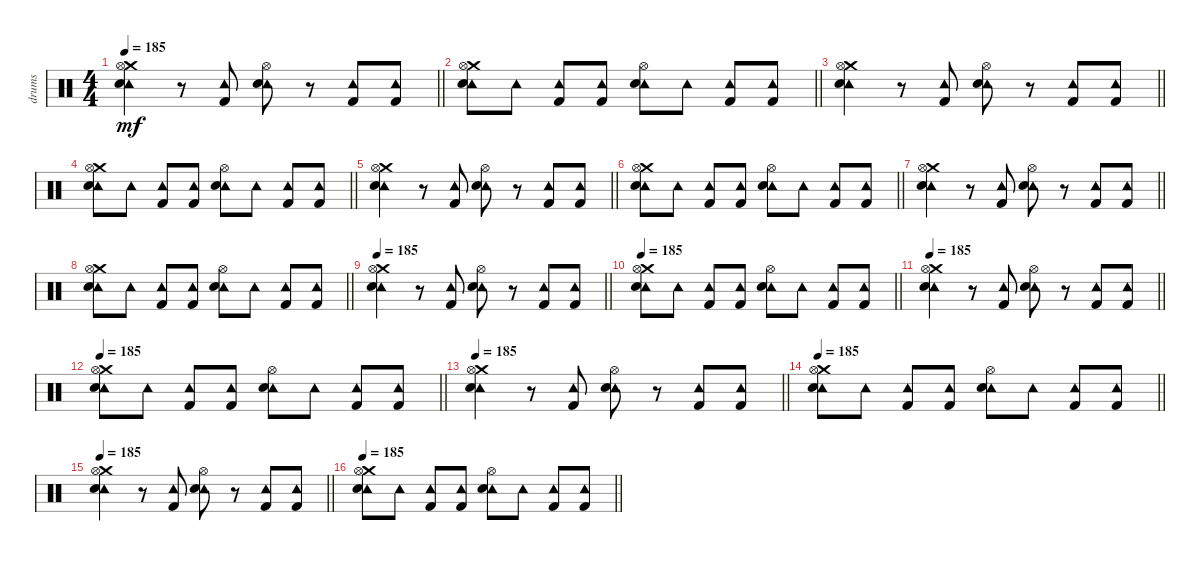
\track ("drums" "drums") {instrument percussion}
\staff {score}
\articulation defaults
\ts (4 4)
\tempo 185
\clef neutral
\barLineRight lightlight
\ks c
("Tambourine (hit)" "Crash medium (hit)" "Hi-Hat (open)" "Electric Snare (hit)").4{dy mf} r.8 ("Tambourine (hit)" "Kick (hit) 2").8 ("Tambourine (hit)" "Hi-Hat (open)" "Electric Snare (hit)").8 r.8 ("Tambourine (hit)" "Kick (hit) 2").8 ("Tambourine (hit)" "Kick (hit) 2").8 |
\barLineRight lightlight
("Tambourine (hit)" "Crash medium (hit)" "Hi-Hat (open)" "Electric Snare (hit)").8 "Tambourine (hit)".8 ("Tambourine (hit)" "Kick (hit) 2").8 ("Tambourine (hit)" "Kick (hit) 2").8 ("Tambourine (hit)" "Hi-Hat (open)" "Electric Snare (hit)").8 "Tambourine (hit)".8 ("Tambourine (hit)" "Kick (hit) 2").8 ("Tambourine (hit)" "Kick (hit) 2").8 |
\barLineRight lightlight
("Tambourine (hit)" "Crash medium (hit)" "Hi-Hat (open)" "Electric Snare (hit)").4 r.8 ("Tambourine (hit)" "Kick (hit) 2").8 ("Tambourine (hit)" "Hi-Hat (open)" "Electric Snare (hit)").8 r.8 ("Tambourine (hit)" "Kick (hit) 2").8 ("Tambourine (hit)" "Kick (hit) 2").8 |
\barLineRight lightlight
("Tambourine (hit)" "Crash medium (hit)" "Hi-Hat (open)" "Electric Snare (hit)").8 "Tambourine (hit)".8 ("Tambourine (hit)" "Kick (hit) 2").8 ("Tambourine (hit)" "Kick (hit) 2").8 ("Tambourine (hit)" "Hi-Hat (open)" "Electric Snare (hit)").8 "Tambourine (hit)".8 ("Tambourine (hit)" "Kick (hit) 2").8 ("Tambourine (hit)" "Kick (hit) 2").8 |
\barLineRight lightlight
("Tambourine (hit)" "Crash medium (hit)" "Hi-Hat (open)" "Electric Snare (hit)").4 r.8 ("Tambourine (hit)" "Kick (hit) 2").8 ("Tambourine (hit)" "Hi-Hat (open)" "Electric Snare (hit)").8 r.8 ("Tambourine (hit)" "Kick (hit) 2").8 ("Tambourine (hit)" "Kick (hit) 2").8 |
\barLineRight lightlight
("Tambourine (hit)" "Crash medium (hit)" "Hi-Hat (open)" "Electric Snare (hit)").8 "Tambourine (hit)".8 ("Tambourine (hit)" "Kick (hit) 2").8 ("Tambourine (hit)" "Kick (hit) 2").8 ("Tambourine (hit)" "Hi-Hat (open)" "Electric Snare (hit)").8 "Tambourine (hit)".8 ("Tambourine (hit)" "Kick (hit) 2").8 ("Tambourine (hit)" "Kick (hit) 2").8 |
\barLineRight lightlight
("Tambourine (hit)" "Crash medium (hit)" "Hi-Hat (open)" "Electric Snare (hit)").4 r.8 ("Tambourine (hit)" "Kick (hit) 2").8 ("Tambourine (hit)" "Hi-Hat (open)" "Electric Snare (hit)").8 r.8 ("Tambourine (hit)" "Kick (hit) 2").8 ("Tambourine (hit)" "Kick (hit) 2").8 |
\barLineRight lightlight
("Tambourine (hit)" "Crash medium (hit)" "Hi-Hat (open)" "Electric Snare (hit)").8 "Tambourine (hit)".8 ("Tambourine (hit)" "Kick (hit) 2").8 ("Tambourine (hit)" "Kick (hit) 2").8 ("Tambourine (hit)" "Hi-Hat (open)" "Electric Snare (hit)").8 "Tambourine (hit)".8 ("Tambourine (hit)" "Kick (hit) 2").8 ("Tambourine (hit)" "Kick (hit) 2").8 |
\tempo 185
\barLineRight lightlight
("Tambourine (hit)" "Crash medium (hit)" "Hi-Hat (open)" "Electric Snare (hit)").4 r.8 ("Tambourine (hit)" "Kick (hit) 2").8 ("Tambourine (hit)" "Hi-Hat (open)" "Electric Snare (hit)").8 r.8 ("Tambourine (hit)" "Kick (hit) 2").8 ("Tambourine (hit)" "Kick (hit) 2").8 |
\tempo 185
\barLineRight lightlight
("Tambourine (hit)" "Crash medium (hit)" "Hi-Hat (open)" "Electric Snare (hit)").8 "Tambourine (hit)".8 ("Tambourine (hit)" "Kick (hit) 2").8 ("Tambourine (hit)" "Kick (hit) 2").8 ("Tambourine (hit)" "Hi-Hat (open)" "Electric Snare (hit)").8 "Tambourine (hit)".8 ("Tambourine (hit)" "Kick (hit) 2").8 ("Tambourine (hit)" "Kick (hit) 2").8 |
\tempo 185
\barLineRight lightlight
("Tambourine (hit)" "Crash medium (hit)" "Hi-Hat (open)" "Electric Snare (hit)").4 r.8 ("Tambourine (hit)" "Kick (hit) 2").8 ("Tambourine (hit)" "Hi-Hat (open)" "Electric Snare (hit)").8 r.8 ("Tambourine (hit)" "Kick (hit) 2").8 ("Tambourine (hit)" "Kick (hit) 2").8 |
\tempo 185
\barLineRight lightlight
("Tambourine (hit)" "Crash medium (hit)" "Hi-Hat (open)" "Electric Snare (hit)").8 "Tambourine (hit)".8 ("Tambourine (hit)" "Kick (hit) 2").8 ("Tambourine (hit)" "Kick (hit) 2").8 ("Tambourine (hit)" "Hi-Hat (open)" "Electric Snare (hit)").8 "Tambourine (hit)".8 ("Tambourine (hit)" "Kick (hit) 2").8 ("Tambourine (hit)" "Kick (hit) 2").8 |
\tempo 185
\barLineRight lightlight
("Tambourine (hit)" "Crash medium (hit)" "Hi-Hat (open)" "Electric Snare (hit)").4 r.8 ("Tambourine (hit)" "Kick (hit) 2").8 ("Tambourine (hit)" "Hi-Hat (open)" "Electric Snare (hit)").8 r.8 ("Tambourine (hit)" "Kick (hit) 2").8 ("Tambourine (hit)" "Kick (hit) 2").8 |
\tempo 185
\barLineRight lightlight
("Tambourine (hit)" "Crash medium (hit)" "Hi-Hat (open)" "Electric Snare (hit)").8 "Tambourine (hit)".8 ("Tambourine (hit)" "Kick (hit) 2").8 ("Tambourine (hit)" "Kick (hit) 2").8 ("Tambourine (hit)" "Hi-Hat (open)" "Electric Snare (hit)").8 "Tambourine (hit)".8 ("Tambourine (hit)" "Kick (hit) 2").8 ("Tambourine (hit)" "Kick (hit) 2").8 |
\tempo 185
\barLineRight lightlight
("Tambourine (hit)" "Crash medium (hit)" "Hi-Hat (open)" "Electric Snare (hit)").4 r.8 ("Tambourine (hit)" "Kick (hit) 2").8 ("Tambourine (hit)" "Hi-Hat (open)" "Electric Snare (hit)").8 r.8 ("Tambourine (hit)" "Kick (hit) 2").8 ("Tambourine (hit)" "Kick (hit) 2").8 |
\tempo 185
\barLineRight lightlight
("Tambourine (hit)" "Crash medium (hit)" "Hi-Hat (open)" "Electric Snare (hit)").8 "Tambourine (hit)".8 ("Tambourine (hit)" "Kick (hit) 2").8 ("Tambourine (hit)" "Kick (hit) 2").8 ("Tambourine (hit)" "Hi-Hat (open)" "Electric Snare (hit)").8 "Tambourine (hit)".8 ("Tambourine (hit)" "Kick (hit) 2").8 ("Tambourine (hit)" "Kick (hit) 2").8
